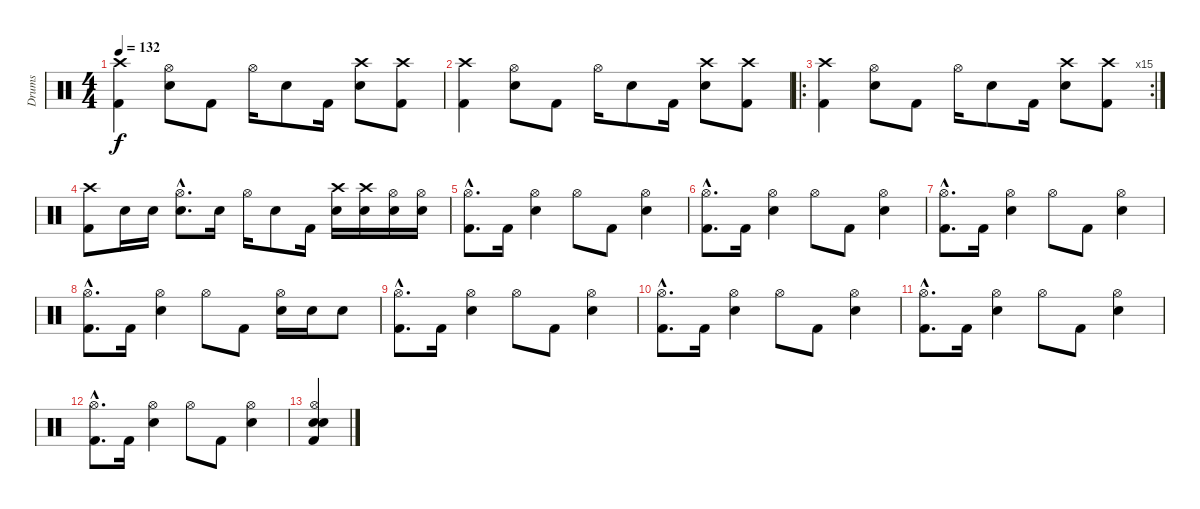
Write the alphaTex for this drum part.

\track ("Drums" "Drums") {instrument percussion}
\staff {score}
\articulation defaults
\ts (4 4)
\tempo 132
\clef neutral
\ks c
("Crash high (hit)" "Kick (hit) 2").4{dy f} ("Hi-Hat (open)" "Electric Snare (hit)").8 "Kick (hit) 2".8 "Hi-Hat (open)".16 "Electric Snare (hit)".8 "Kick (hit) 2".16 ("Crash high (hit)" "Electric Snare (hit)").8 ("Crash high (hit)" "Kick (hit) 2").8 |
("Crash high (hit)" "Kick (hit) 2").4 ("Hi-Hat (open)" "Electric Snare (hit)").8 "Kick (hit) 2".8 "Hi-Hat (open)".16 "Electric Snare (hit)".8 "Kick (hit) 2".16 ("Crash high (hit)" "Electric Snare (hit)").8 ("Crash high (hit)" "Kick (hit) 2").8 |
\ro
\rc 15
("Crash high (hit)" "Kick (hit) 2").4 ("Hi-Hat (open)" "Electric Snare (hit)").8 "Kick (hit) 2".8 "Hi-Hat (open)".16 "Electric Snare (hit)".8 "Kick (hit) 2".16 ("Crash high (hit)" "Electric Snare (hit)").8 ("Crash high (hit)" "Kick (hit) 2").8 |
("Crash high (hit)" "Kick (hit) 2").8 "Electric Snare (hit)".16 "Electric Snare (hit)".16 ("Hi-Hat (open)"{hac} "Electric Snare (hit)"{hac}).8{d} "Electric Snare (hit)".16 "Hi-Hat (open)".16 "Electric Snare (hit)".8 "Kick (hit) 2".16 ("Crash high (hit)" "Electric Snare (hit)").16 ("Crash high (hit)" "Electric Snare (hit)").16 ("Hi-Hat (open)" "Electric Snare (hit)").16 ("Hi-Hat (open)" "Electric Snare (hit)").16 |
("Hi-Hat (open)"{hac} "Kick (hit) 2"{hac}).8{d} "Kick (hit) 2".16 ("Hi-Hat (open)" "Electric Snare (hit)").4 "Hi-Hat (open)".8 "Kick (hit) 2".8 ("Hi-Hat (open)" "Electric Snare (hit)").4 |
("Hi-Hat (open)"{hac} "Kick (hit) 2"{hac}).8{d} "Kick (hit) 2".16 ("Hi-Hat (open)" "Electric Snare (hit)").4 "Hi-Hat (open)".8 "Kick (hit) 2".8 ("Hi-Hat (open)" "Electric Snare (hit)").4 |
("Hi-Hat (open)"{hac} "Kick (hit) 2"{hac}).8{d} "Kick (hit) 2".16 ("Hi-Hat (open)" "Electric Snare (hit)").4 "Hi-Hat (open)".8 "Kick (hit) 2".8 ("Hi-Hat (open)" "Electric Snare (hit)").4 |
("Hi-Hat (open)"{hac} "Kick (hit) 2"{hac}).8{d} "Kick (hit) 2".16 ("Hi-Hat (open)" "Electric Snare (hit)").4 "Hi-Hat (open)".8 "Kick (hit) 2".8 ("Hi-Hat (open)" "Electric Snare (hit)").16 "Electric Snare (hit)".16 "Electric Snare (hit)".8 |
("Hi-Hat (open)"{hac} "Kick (hit) 2"{hac}).8{d} "Kick (hit) 2".16 ("Hi-Hat (open)" "Electric Snare (hit)").4 "Hi-Hat (open)".8 "Kick (hit) 2".8 ("Hi-Hat (open)" "Electric Snare (hit)").4 |
("Hi-Hat (open)"{hac} "Kick (hit) 2"{hac}).8{d} "Kick (hit) 2".16 ("Hi-Hat (open)" "Electric Snare (hit)").4 "Hi-Hat (open)".8 "Kick (hit) 2".8 ("Hi-Hat (open)" "Electric Snare (hit)").4 |
("Hi-Hat (open)"{hac} "Kick (hit) 2"{hac}).8{d} "Kick (hit) 2".16 ("Hi-Hat (open)" "Electric Snare (hit)").4 "Hi-Hat (open)".8 "Kick (hit) 2".8 ("Hi-Hat (open)" "Electric Snare (hit)").4 |
("Hi-Hat (open)"{hac} "Kick (hit) 2"{hac}).8{d} "Kick (hit) 2".16 ("Hi-Hat (open)" "Electric Snare (hit)").4 "Hi-Hat (open)".8 "Kick (hit) 2".8 ("Hi-Hat (open)" "Electric Snare (hit)").4 |
("Hi-Hat (open)" "Kick (hit) 2" "Electric Snare (hit)" "Electric Snare (hit)").4
